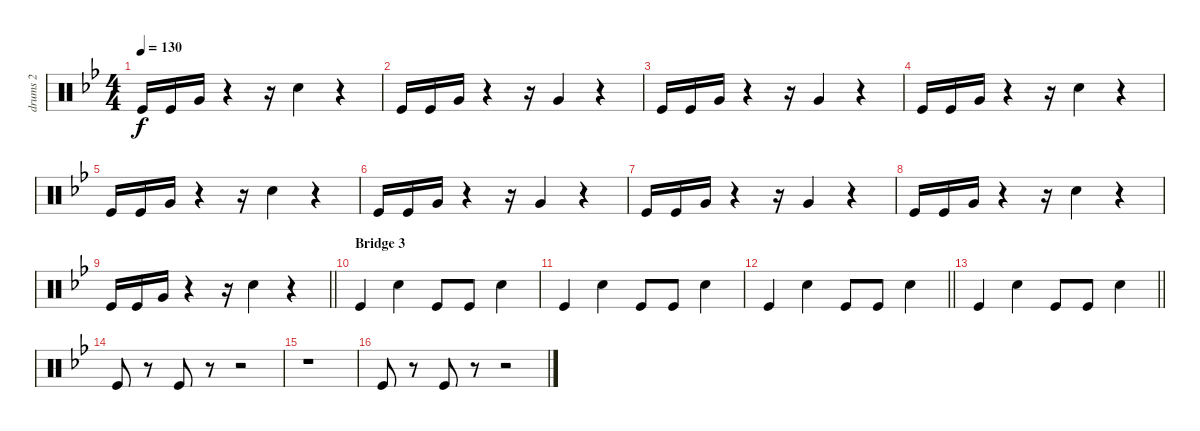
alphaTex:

\track ("drums 2" "drums 2") {instrument percussion}
\staff {score}
\articulation defaults
\ts (4 4)
\tempo 130
\clef neutral
\ks bb "Kick (hit)".16{dy f} "Kick (hit)".16 "Very Low Tom (hit)".16
r.4 r.16 "Snare (hit) 2".4 r.4 |
"Kick (hit)".16 "Kick (hit)".16 "Very Low Tom (hit)".16 r.4 r.16 "Very Low Tom (hit)".4 r.4 |
"Kick (hit)".16 "Kick (hit)".16 "Very Low Tom (hit)".16 r.4 r.16 "Very Low Tom (hit)".4 r.4 |
"Kick (hit)".16 "Kick (hit)".16 "Very Low Tom (hit)".16 r.4 r.16 "Snare (hit) 2".4 r.4 |
"Kick (hit)".16 "Kick (hit)".16 "Very Low Tom (hit)".16 r.4 r.16 "Snare (hit) 2".4 r.4 |
"Kick (hit)".16 "Kick (hit)".16 "Very Low Tom (hit)".16 r.4 r.16 "Very Low Tom (hit)".4 r.4 |
"Kick (hit)".16 "Kick (hit)".16 "Very Low Tom (hit)".16 r.4 r.16 "Very Low Tom (hit)".4 r.4 |
"Kick (hit)".16 "Kick (hit)".16 "Very Low Tom (hit)".16 r.4 r.16 "Snare (hit) 2".4 r.4 |
\barLineRight lightlight "Kick (hit)".16 "Kick (hit)".16 "Very Low Tom (hit)".16
r.4 r.16 "Snare (hit) 2".4 r.4 |
\section ("" "Bridge 3")
"Kick (hit)".4 "Snare (hit) 2".4 "Kick (hit)".8 "Kick (hit)".8 "Snare (hit) 2".4 |
"Kick (hit)".4 "Snare (hit) 2".4 "Kick (hit)".8 "Kick (hit)".8 "Snare (hit) 2".4 |
\barLineRight lightlight "Kick (hit)".4 "Snare (hit) 2".4 "Kick (hit)".8 "Kick (hit)".8 "Snare (hit) 2".4
|
\barLineRight lightlight "Kick (hit)".4 "Snare (hit) 2".4 "Kick (hit)".8 "Kick (hit)".8 "Snare (hit) 2".4
|
"Kick (hit)".8 r.8 "Kick (hit)".8 r.8 r.2 |
r.1 |
"Kick (hit)".8 r.8 "Kick (hit)".8 r.8 r.2
